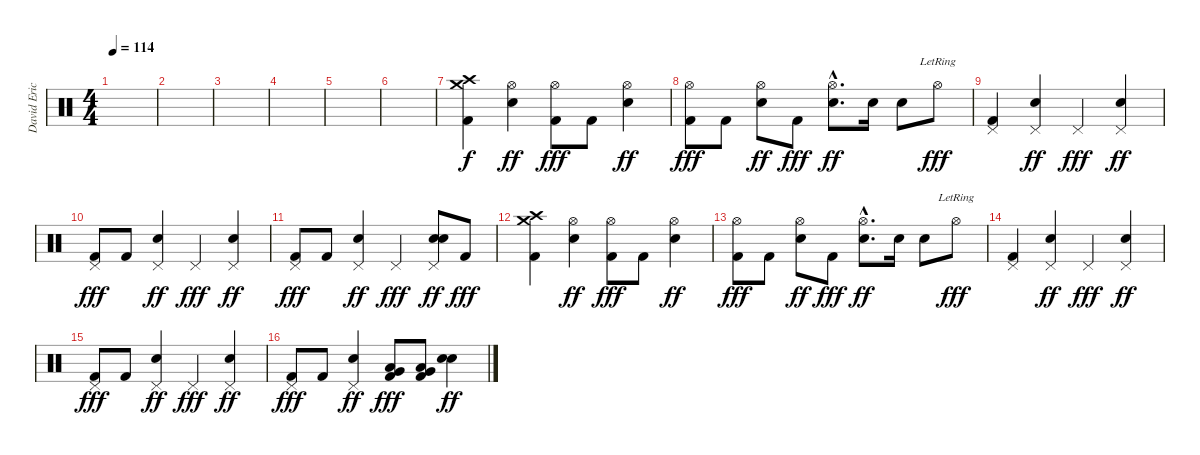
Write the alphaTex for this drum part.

\track ("David Eric Grohl" "David Eric") {instrument percussion}
\staff {score}
\articulation defaults
\ts (4 4)
\tempo 114
\clef neutral
\ks c
|
|
|
|
|
|
("Crash medium (hit)" "Crash high (hit)" "Kick (hit) 2").4 ("Hi-Hat (open)" "Electric Snare (hit)").4{dy ff} ("Hi-Hat (open)" "Kick (hit) 2").8{dy fff} "Kick (hit) 2".8 ("Hi-Hat (open)" "Electric Snare (hit)").4{dy ff} |
("Hi-Hat (open)" "Kick (hit) 2").8{dy fff} "Kick (hit) 2".8 ("Hi-Hat (open)" "Electric Snare (hit)").8{dy ff} "Kick (hit) 2".8{dy fff} ("Hi-Hat (open)"{hac} "Electric Snare (hit)"{hac}).8{d dy ff} "Electric Snare (hit)".16 "Electric Snare (hit)".8 "Hi-Hat (open)"{lr}.8{dy fff} |
("Pedal Hi-Hat (hit)" "Kick (hit) 2").4 ("Pedal Hi-Hat (hit)" "Electric Snare (hit)").4{dy ff} "Pedal Hi-Hat (hit)".4{dy fff} ("Pedal Hi-Hat (hit)" "Electric Snare (hit)").4{dy ff} |
("Pedal Hi-Hat (hit)" "Kick (hit) 2").8{dy fff} "Kick (hit) 2".8 ("Pedal Hi-Hat (hit)" "Electric Snare (hit)").4{dy ff} "Pedal Hi-Hat (hit)".4{dy fff} ("Pedal Hi-Hat (hit)" "Electric Snare (hit)").4{dy ff} |
("Pedal Hi-Hat (hit)" "Kick (hit) 2").8{dy fff} "Kick (hit) 2".8 ("Pedal Hi-Hat (hit)" "Electric Snare (hit)").4{dy ff} "Pedal Hi-Hat (hit)".4{dy fff} ("Pedal Hi-Hat (hit)" "Electric Snare (hit)" "Electric Snare (hit)").8{dy ff} "Kick (hit) 2".8{dy fff} |
("Crash medium (hit)" "Crash high (hit)" "Kick (hit) 2").4 ("Hi-Hat (open)" "Electric Snare (hit)").4{dy ff} ("Hi-Hat (open)" "Kick (hit) 2").8{dy fff} "Kick (hit) 2".8 ("Hi-Hat (open)" "Electric Snare (hit)").4{dy ff} |
("Hi-Hat (open)" "Kick (hit) 2").8{dy fff} "Kick (hit) 2".8 ("Hi-Hat (open)" "Electric Snare (hit)").8{dy ff} "Kick (hit) 2".8{dy fff} ("Hi-Hat (open)"{hac} "Electric Snare (hit)"{hac}).8{d dy ff} "Electric Snare (hit)".16 "Electric Snare (hit)".8 "Hi-Hat (open)"{lr}.8{dy fff} |
("Pedal Hi-Hat (hit)" "Kick (hit) 2").4 ("Pedal Hi-Hat (hit)" "Electric Snare (hit)").4{dy ff} "Pedal Hi-Hat (hit)".4{dy fff} ("Pedal Hi-Hat (hit)" "Electric Snare (hit)").4{dy ff} |
("Pedal Hi-Hat (hit)" "Kick (hit) 2").8{dy fff} "Kick (hit) 2".8 ("Pedal Hi-Hat (hit)" "Electric Snare (hit)").4{dy ff} "Pedal Hi-Hat (hit)".4{dy fff} ("Pedal Hi-Hat (hit)" "Electric Snare (hit)").4{dy ff} |
("Pedal Hi-Hat (hit)" "Kick (hit) 2").8{dy fff} "Kick (hit) 2".8 ("Pedal Hi-Hat (hit)" "Electric Snare (hit)").4{dy ff} ("Low Tom (hit)" "Very Low Tom (hit)" "Kick (hit) 2").8{dy fff} ("Low Tom (hit)" "Very Low Tom (hit)" "Kick (hit) 2").8 ("Electric Snare (hit)" "Electric Snare (hit)").4{dy ff}
